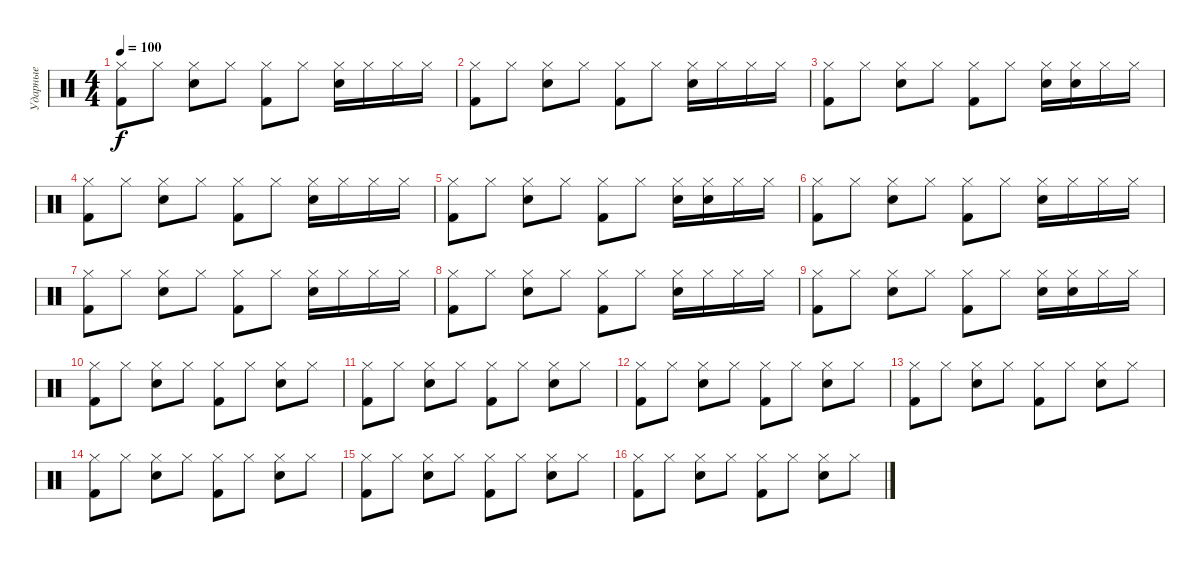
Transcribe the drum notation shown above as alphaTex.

\track ("Ударные" "Ударные") {instrument percussion}
\staff {score}
\articulation defaults
\ts (4 4)
\tempo 100
\clef neutral
\ks c
("Hi-Hat (closed)" "Kick (hit) 2").8{dy f} "Hi-Hat (closed)".8 ("Electric Snare (hit)" "Hi-Hat (closed)").8 "Hi-Hat (closed)".8 ("Hi-Hat (closed)" "Kick (hit) 2").8 "Hi-Hat (closed)".8 ("Electric Snare (hit)" "Hi-Hat (closed)").16 "Hi-Hat (closed)".16 "Hi-Hat (closed)".16 "Hi-Hat (closed)".16 |
("Hi-Hat (closed)" "Kick (hit) 2").8 "Hi-Hat (closed)".8 ("Electric Snare (hit)" "Hi-Hat (closed)").8 "Hi-Hat (closed)".8 ("Hi-Hat (closed)" "Kick (hit) 2").8 "Hi-Hat (closed)".8 ("Electric Snare (hit)" "Hi-Hat (closed)").16 "Hi-Hat (closed)".16 "Hi-Hat (closed)".16 "Hi-Hat (closed)".16 |
("Hi-Hat (closed)" "Kick (hit) 2").8 "Hi-Hat (closed)".8 ("Electric Snare (hit)" "Hi-Hat (closed)").8 "Hi-Hat (closed)".8 ("Hi-Hat (closed)" "Kick (hit) 2").8 "Hi-Hat (closed)".8 ("Electric Snare (hit)" "Hi-Hat (closed)").16 ("Electric Snare (hit)" "Hi-Hat (closed)").16 "Hi-Hat (closed)".16 "Hi-Hat (closed)".16 |
("Hi-Hat (closed)" "Kick (hit) 2").8 "Hi-Hat (closed)".8 ("Electric Snare (hit)" "Hi-Hat (closed)").8 "Hi-Hat (closed)".8 ("Hi-Hat (closed)" "Kick (hit) 2").8 "Hi-Hat (closed)".8 ("Electric Snare (hit)" "Hi-Hat (closed)").16 "Hi-Hat (closed)".16 "Hi-Hat (closed)".16 "Hi-Hat (closed)".16 |
("Hi-Hat (closed)" "Kick (hit) 2").8 "Hi-Hat (closed)".8 ("Electric Snare (hit)" "Hi-Hat (closed)").8 "Hi-Hat (closed)".8 ("Hi-Hat (closed)" "Kick (hit) 2").8 "Hi-Hat (closed)".8 ("Electric Snare (hit)" "Hi-Hat (closed)").16 ("Electric Snare (hit)" "Hi-Hat (closed)").16 "Hi-Hat (closed)".16 "Hi-Hat (closed)".16 |
("Hi-Hat (closed)" "Kick (hit) 2").8 "Hi-Hat (closed)".8 ("Electric Snare (hit)" "Hi-Hat (closed)").8 "Hi-Hat (closed)".8 ("Hi-Hat (closed)" "Kick (hit) 2").8 "Hi-Hat (closed)".8 ("Electric Snare (hit)" "Hi-Hat (closed)").16 "Hi-Hat (closed)".16 "Hi-Hat (closed)".16 "Hi-Hat (closed)".16 |
("Hi-Hat (closed)" "Kick (hit) 2").8 "Hi-Hat (closed)".8 ("Electric Snare (hit)" "Hi-Hat (closed)").8 "Hi-Hat (closed)".8 ("Hi-Hat (closed)" "Kick (hit) 2").8 "Hi-Hat (closed)".8 ("Electric Snare (hit)" "Hi-Hat (closed)").16 "Hi-Hat (closed)".16 "Hi-Hat (closed)".16 "Hi-Hat (closed)".16 |
("Hi-Hat (closed)" "Kick (hit) 2").8 "Hi-Hat (closed)".8 ("Electric Snare (hit)" "Hi-Hat (closed)").8 "Hi-Hat (closed)".8 ("Hi-Hat (closed)" "Kick (hit) 2").8 "Hi-Hat (closed)".8 ("Electric Snare (hit)" "Hi-Hat (closed)").16 "Hi-Hat (closed)".16 "Hi-Hat (closed)".16 "Hi-Hat (closed)".16 |
("Hi-Hat (closed)" "Kick (hit) 2").8 "Hi-Hat (closed)".8 ("Electric Snare (hit)" "Hi-Hat (closed)").8 "Hi-Hat (closed)".8 ("Hi-Hat (closed)" "Kick (hit) 2").8 "Hi-Hat (closed)".8 ("Electric Snare (hit)" "Hi-Hat (closed)").16 ("Electric Snare (hit)" "Hi-Hat (closed)").16 "Hi-Hat (closed)".16 "Hi-Hat (closed)".16 |
("Hi-Hat (closed)" "Kick (hit) 2").8 "Hi-Hat (closed)".8 ("Electric Snare (hit)" "Hi-Hat (closed)").8 "Hi-Hat (closed)".8 ("Hi-Hat (closed)" "Kick (hit) 2").8 "Hi-Hat (closed)".8 ("Electric Snare (hit)" "Hi-Hat (closed)").8 "Hi-Hat (closed)".8 |
("Hi-Hat (closed)" "Kick (hit) 2").8 "Hi-Hat (closed)".8 ("Electric Snare (hit)" "Hi-Hat (closed)").8 "Hi-Hat (closed)".8 ("Hi-Hat (closed)" "Kick (hit) 2").8 "Hi-Hat (closed)".8 ("Electric Snare (hit)" "Hi-Hat (closed)").8 "Hi-Hat (closed)".8 |
("Hi-Hat (closed)" "Kick (hit) 2").8 "Hi-Hat (closed)".8 ("Electric Snare (hit)" "Hi-Hat (closed)").8 "Hi-Hat (closed)".8 ("Hi-Hat (closed)" "Kick (hit) 2").8 "Hi-Hat (closed)".8 ("Electric Snare (hit)" "Hi-Hat (closed)").8 "Hi-Hat (closed)".8 |
("Hi-Hat (closed)" "Kick (hit) 2").8 "Hi-Hat (closed)".8 ("Electric Snare (hit)" "Hi-Hat (closed)").8 "Hi-Hat (closed)".8 ("Hi-Hat (closed)" "Kick (hit) 2").8 "Hi-Hat (closed)".8 ("Electric Snare (hit)" "Hi-Hat (closed)").8 "Hi-Hat (closed)".8 |
("Hi-Hat (closed)" "Kick (hit) 2").8 "Hi-Hat (closed)".8 ("Electric Snare (hit)" "Hi-Hat (closed)").8 "Hi-Hat (closed)".8 ("Hi-Hat (closed)" "Kick (hit) 2").8 "Hi-Hat (closed)".8 ("Electric Snare (hit)" "Hi-Hat (closed)").8 "Hi-Hat (closed)".8 |
("Hi-Hat (closed)" "Kick (hit) 2").8 "Hi-Hat (closed)".8 ("Electric Snare (hit)" "Hi-Hat (closed)").8 "Hi-Hat (closed)".8 ("Hi-Hat (closed)" "Kick (hit) 2").8 "Hi-Hat (closed)".8 ("Electric Snare (hit)" "Hi-Hat (closed)").8 "Hi-Hat (closed)".8 |
("Hi-Hat (closed)" "Kick (hit) 2").8 "Hi-Hat (closed)".8 ("Electric Snare (hit)" "Hi-Hat (closed)").8 "Hi-Hat (closed)".8 ("Hi-Hat (closed)" "Kick (hit) 2").8 "Hi-Hat (closed)".8 ("Electric Snare (hit)" "Hi-Hat (closed)").8 "Hi-Hat (closed)".8
